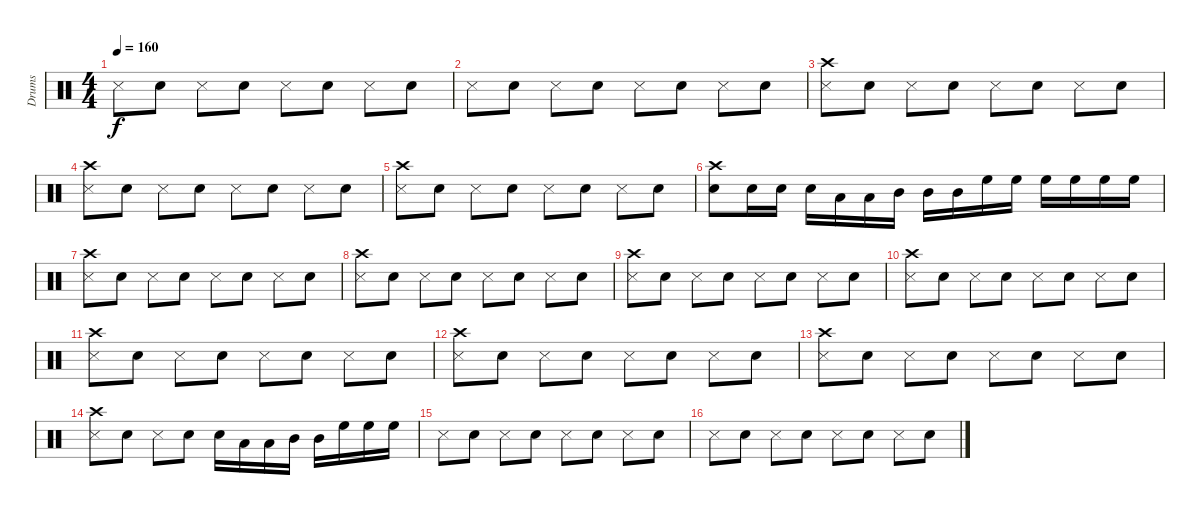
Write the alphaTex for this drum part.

\track ("Drums " "Drums ") {instrument percussion}
\staff {score}
\articulation defaults
\ts (4 4)
\tempo 160
\clef neutral
\ks c "Metronome (hit)".8{dy f} "Snare (hit) 2".8 "Metronome (hit)".8 "Snare (hit) 2".8 "Metronome (hit)".8 "Snare (hit) 2".8 "Metronome (hit)".8 "Snare (hit) 2".8
|
"Metronome (hit)".8 "Snare (hit) 2".8 "Metronome (hit)".8 "Snare (hit) 2".8 "Metronome (hit)".8 "Snare (hit) 2".8 "Metronome (hit)".8 "Snare (hit) 2".8 |
("Crash high (hit)" "Metronome (hit)").8 "Snare (hit) 2".8 "Metronome (hit)".8 "Snare (hit) 2".8 "Metronome (hit)".8 "Snare (hit) 2".8 "Metronome (hit)".8 "Snare (hit) 2".8 |
("Crash high (hit)" "Metronome (hit)").8 "Snare (hit) 2".8 "Metronome (hit)".8 "Snare (hit) 2".8 "Metronome (hit)".8 "Snare (hit) 2".8 "Metronome (hit)".8 "Snare (hit) 2".8 |
("Crash high (hit)" "Metronome (hit)").8 "Snare (hit) 2".8 "Metronome (hit)".8 "Snare (hit) 2".8 "Metronome (hit)".8 "Snare (hit) 2".8 "Metronome (hit)".8 "Snare (hit) 2".8 |
("Crash high (hit)" "Snare (hit) 2").8 "Electric Snare (hit)".16 "Electric Snare (hit)".16 "Electric Snare (hit)".16 "Low Tom (hit)".16 "Low Tom (hit)".16 "Mid Tom (hit)".16 "Mid Tom (hit)".16 "Mid Tom (hit)".16 "High Floor Tom (hit)".16 "High Floor Tom (hit)".16 "High Floor Tom (hit)".16 "High Floor Tom (hit)".16 "High Floor Tom (hit)".16 "High Floor Tom (hit)".16 |
("Crash high (hit)" "Metronome (hit)").8 "Snare (hit) 2".8 "Metronome (hit)".8 "Snare (hit) 2".8 "Metronome (hit)".8 "Snare (hit) 2".8 "Metronome (hit)".8 "Snare (hit) 2".8 |
("Crash high (hit)" "Metronome (hit)").8 "Snare (hit) 2".8 "Metronome (hit)".8 "Snare (hit) 2".8 "Metronome (hit)".8 "Snare (hit) 2".8 "Metronome (hit)".8 "Snare (hit) 2".8 |
("Crash high (hit)" "Metronome (hit)").8 "Snare (hit) 2".8 "Metronome (hit)".8 "Snare (hit) 2".8 "Metronome (hit)".8 "Snare (hit) 2".8 "Metronome (hit)".8 "Snare (hit) 2".8 |
("Crash high (hit)" "Metronome (hit)").8 "Snare (hit) 2".8 "Metronome (hit)".8 "Snare (hit) 2".8 "Metronome (hit)".8 "Snare (hit) 2".8 "Metronome (hit)".8 "Snare (hit) 2".8 |
("Crash high (hit)" "Metronome (hit)").8 "Snare (hit) 2".8 "Metronome (hit)".8 "Snare (hit) 2".8 "Metronome (hit)".8 "Snare (hit) 2".8 "Metronome (hit)".8 "Snare (hit) 2".8 |
("Crash high (hit)" "Metronome (hit)").8 "Snare (hit) 2".8 "Metronome (hit)".8 "Snare (hit) 2".8 "Metronome (hit)".8 "Snare (hit) 2".8 "Metronome (hit)".8 "Snare (hit) 2".8 |
("Crash high (hit)" "Metronome (hit)").8 "Snare (hit) 2".8 "Metronome (hit)".8 "Snare (hit) 2".8 "Metronome (hit)".8 "Snare (hit) 2".8 "Metronome (hit)".8 "Snare (hit) 2".8 |
("Crash high (hit)" "Metronome (hit)").8 "Snare (hit) 2".8 "Metronome (hit)".8 "Snare (hit) 2".8 "Electric Snare (hit)".16 "Low Tom (hit)".16 "Low Tom (hit)".16 "Mid Tom (hit)".16 "Mid Tom (hit)".16 "High Floor Tom (hit)".16 "High Floor Tom (hit)".16 "High Floor Tom (hit)".16 |
"Metronome (hit)".8 "Snare (hit) 2".8 "Metronome (hit)".8 "Snare (hit) 2".8 "Metronome (hit)".8 "Snare (hit) 2".8 "Metronome (hit)".8 "Snare (hit) 2".8 |
"Metronome (hit)".8 "Snare (hit) 2".8 "Metronome (hit)".8 "Snare (hit) 2".8 "Metronome (hit)".8 "Snare (hit) 2".8 "Metronome (hit)".8 "Snare (hit) 2".8
